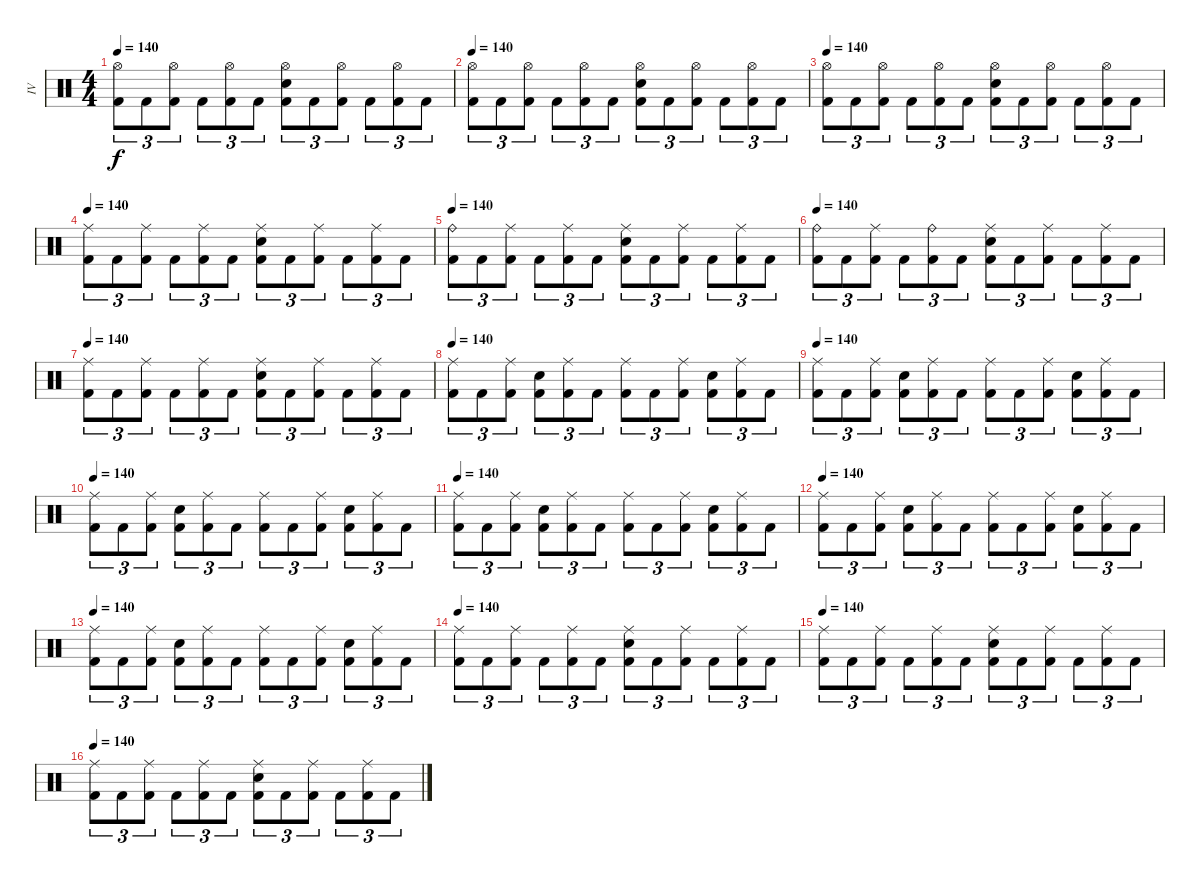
\track ("IV" "IV") {instrument percussion}
\staff {score}
\articulation defaults
\ts (4 4)
\tempo 140
\clef neutral
\ks c
("Hi-Hat (open)" "Kick (hit) 2").8{tu (3 2) dy f} "Kick (hit) 2".8{tu (3 2)} ("Hi-Hat (open)" "Kick (hit) 2").8{tu (3 2)} "Kick (hit) 2".8{tu (3 2)} ("Hi-Hat (open)" "Kick (hit) 2").8{tu (3 2)} "Kick (hit) 2".8{tu (3 2)} ("Hi-Hat (open)" "Snare (hit) 2" "Kick (hit) 2").8{tu (3 2)} "Kick (hit) 2".8{tu (3 2)} ("Hi-Hat (open)" "Kick (hit) 2").8{tu (3 2)} "Kick (hit) 2".8{tu (3 2)} ("Hi-Hat (open)" "Kick (hit) 2").8{tu (3 2)} "Kick (hit) 2".8{tu (3 2)} |
\tempo 140
("Hi-Hat (open)" "Kick (hit) 2").8{tu (3 2)} "Kick (hit) 2".8{tu (3 2)} ("Hi-Hat (open)" "Kick (hit) 2").8{tu (3 2)} "Kick (hit) 2".8{tu (3 2)} ("Hi-Hat (open)" "Kick (hit) 2").8{tu (3 2)} "Kick (hit) 2".8{tu (3 2)} ("Hi-Hat (open)" "Snare (hit) 2" "Kick (hit) 2").8{tu (3 2)} "Kick (hit) 2".8{tu (3 2)} ("Hi-Hat (open)" "Kick (hit) 2").8{tu (3 2)} "Kick (hit) 2".8{tu (3 2)} ("Hi-Hat (open)" "Kick (hit) 2").8{tu (3 2)} "Kick (hit) 2".8{tu (3 2)} |
\tempo 140
("Hi-Hat (open)" "Kick (hit) 2").8{tu (3 2)} "Kick (hit) 2".8{tu (3 2)} ("Hi-Hat (open)" "Kick (hit) 2").8{tu (3 2)} "Kick (hit) 2".8{tu (3 2)} ("Hi-Hat (open)" "Kick (hit) 2").8{tu (3 2)} "Kick (hit) 2".8{tu (3 2)} ("Hi-Hat (open)" "Snare (hit) 2" "Kick (hit) 2").8{tu (3 2)} "Kick (hit) 2".8{tu (3 2)} ("Hi-Hat (open)" "Kick (hit) 2").8{tu (3 2)} "Kick (hit) 2".8{tu (3 2)} ("Hi-Hat (open)" "Kick (hit) 2").8{tu (3 2)} "Kick (hit) 2".8{tu (3 2)} |
\tempo 140
("Ride (middle)" "Kick (hit) 2").8{tu (3 2)} "Kick (hit) 2".8{tu (3 2)} ("Ride (middle)" "Kick (hit) 2").8{tu (3 2)} "Kick (hit) 2".8{tu (3 2)} ("Ride (middle)" "Kick (hit) 2").8{tu (3 2)} "Kick (hit) 2".8{tu (3 2)} ("Ride (middle)" "Snare (hit) 2" "Kick (hit) 2").8{tu (3 2)} "Kick (hit) 2".8{tu (3 2)} ("Ride (middle)" "Kick (hit) 2").8{tu (3 2)} "Kick (hit) 2".8{tu (3 2)} ("Ride (middle)" "Kick (hit) 2").8{tu (3 2)} "Kick (hit) 2".8{tu (3 2)} |
\tempo 140
("Ride (bell)" "Kick (hit) 2").8{tu (3 2)} "Kick (hit) 2".8{tu (3 2)} ("Ride (middle)" "Kick (hit) 2").8{tu (3 2)} "Kick (hit) 2".8{tu (3 2)} ("Ride (middle)" "Kick (hit) 2").8{tu (3 2)} "Kick (hit) 2".8{tu (3 2)} ("Ride (middle)" "Snare (hit) 2" "Kick (hit) 2").8{tu (3 2)} "Kick (hit) 2".8{tu (3 2)} ("Ride (middle)" "Kick (hit) 2").8{tu (3 2)} "Kick (hit) 2".8{tu (3 2)} ("Ride (middle)" "Kick (hit) 2").8{tu (3 2)} "Kick (hit) 2".8{tu (3 2)} |
\tempo 140
("Ride (bell)" "Kick (hit) 2").8{tu (3 2)} "Kick (hit) 2".8{tu (3 2)} ("Ride (middle)" "Kick (hit) 2").8{tu (3 2)} "Kick (hit) 2".8{tu (3 2)} ("Ride (bell)" "Kick (hit) 2").8{tu (3 2)} "Kick (hit) 2".8{tu (3 2)} ("Ride (middle)" "Snare (hit) 2" "Kick (hit) 2").8{tu (3 2)} "Kick (hit) 2".8{tu (3 2)} ("Ride (middle)" "Kick (hit) 2").8{tu (3 2)} "Kick (hit) 2".8{tu (3 2)} ("Ride (middle)" "Kick (hit) 2").8{tu (3 2)} "Kick (hit) 2".8{tu (3 2)} |
\tempo 140
("Ride (middle)" "Kick (hit) 2").8{tu (3 2)} "Kick (hit) 2".8{tu (3 2)} ("Ride (middle)" "Kick (hit) 2").8{tu (3 2)} "Kick (hit) 2".8{tu (3 2)} ("Ride (middle)" "Kick (hit) 2").8{tu (3 2)} "Kick (hit) 2".8{tu (3 2)} ("Ride (middle)" "Snare (hit) 2" "Kick (hit) 2").8{tu (3 2)} "Kick (hit) 2".8{tu (3 2)} ("Ride (middle)" "Kick (hit) 2").8{tu (3 2)} "Kick (hit) 2".8{tu (3 2)} ("Ride (middle)" "Kick (hit) 2").8{tu (3 2)} "Kick (hit) 2".8{tu (3 2)} |
\tempo 140
("Ride (middle)" "Kick (hit) 2").8{tu (3 2)} "Kick (hit) 2".8{tu (3 2)} ("Ride (middle)" "Kick (hit) 2").8{tu (3 2)} ("Snare (hit) 2" "Kick (hit) 2").8{tu (3 2)} ("Ride (middle)" "Kick (hit) 2").8{tu (3 2)} "Kick (hit) 2".8{tu (3 2)} ("Ride (middle)" "Kick (hit) 2").8{tu (3 2)} "Kick (hit) 2".8{tu (3 2)} ("Ride (middle)" "Kick (hit) 2").8{tu (3 2)} ("Snare (hit) 2" "Kick (hit) 2").8{tu (3 2)} ("Ride (middle)" "Kick (hit) 2").8{tu (3 2)} "Kick (hit) 2".8{tu (3 2)} |
\tempo 140
("Ride (middle)" "Kick (hit) 2").8{tu (3 2)} "Kick (hit) 2".8{tu (3 2)} ("Ride (middle)" "Kick (hit) 2").8{tu (3 2)} ("Snare (hit) 2" "Kick (hit) 2").8{tu (3 2)} ("Ride (middle)" "Kick (hit) 2").8{tu (3 2)} "Kick (hit) 2".8{tu (3 2)} ("Ride (middle)" "Kick (hit) 2").8{tu (3 2)} "Kick (hit) 2".8{tu (3 2)} ("Ride (middle)" "Kick (hit) 2").8{tu (3 2)} ("Snare (hit) 2" "Kick (hit) 2").8{tu (3 2)} ("Ride (middle)" "Kick (hit) 2").8{tu (3 2)} "Kick (hit) 2".8{tu (3 2)} |
\tempo 140
("Ride (middle)" "Kick (hit) 2").8{tu (3 2)} "Kick (hit) 2".8{tu (3 2)} ("Ride (middle)" "Kick (hit) 2").8{tu (3 2)} ("Snare (hit) 2" "Kick (hit) 2").8{tu (3 2)} ("Ride (middle)" "Kick (hit) 2").8{tu (3 2)} "Kick (hit) 2".8{tu (3 2)} ("Ride (middle)" "Kick (hit) 2").8{tu (3 2)} "Kick (hit) 2".8{tu (3 2)} ("Ride (middle)" "Kick (hit) 2").8{tu (3 2)} ("Snare (hit) 2" "Kick (hit) 2").8{tu (3 2)} ("Ride (middle)" "Kick (hit) 2").8{tu (3 2)} "Kick (hit) 2".8{tu (3 2)} |
\tempo 140
("Ride (middle)" "Kick (hit) 2").8{tu (3 2)} "Kick (hit) 2".8{tu (3 2)} ("Ride (middle)" "Kick (hit) 2").8{tu (3 2)} ("Snare (hit) 2" "Kick (hit) 2").8{tu (3 2)} ("Ride (middle)" "Kick (hit) 2").8{tu (3 2)} "Kick (hit) 2".8{tu (3 2)} ("Ride (middle)" "Kick (hit) 2").8{tu (3 2)} "Kick (hit) 2".8{tu (3 2)} ("Ride (middle)" "Kick (hit) 2").8{tu (3 2)} ("Snare (hit) 2" "Kick (hit) 2").8{tu (3 2)} ("Ride (middle)" "Kick (hit) 2").8{tu (3 2)} "Kick (hit) 2".8{tu (3 2)} |
\tempo 140
("Ride (middle)" "Kick (hit) 2").8{tu (3 2)} "Kick (hit) 2".8{tu (3 2)} ("Ride (middle)" "Kick (hit) 2").8{tu (3 2)} ("Snare (hit) 2" "Kick (hit) 2").8{tu (3 2)} ("Ride (middle)" "Kick (hit) 2").8{tu (3 2)} "Kick (hit) 2".8{tu (3 2)} ("Ride (middle)" "Kick (hit) 2").8{tu (3 2)} "Kick (hit) 2".8{tu (3 2)} ("Ride (middle)" "Kick (hit) 2").8{tu (3 2)} ("Snare (hit) 2" "Kick (hit) 2").8{tu (3 2)} ("Ride (middle)" "Kick (hit) 2").8{tu (3 2)} "Kick (hit) 2".8{tu (3 2)} |
\tempo 140
("Ride (middle)" "Kick (hit) 2").8{tu (3 2)} "Kick (hit) 2".8{tu (3 2)} ("Ride (middle)" "Kick (hit) 2").8{tu (3 2)} ("Snare (hit) 2" "Kick (hit) 2").8{tu (3 2)} ("Ride (middle)" "Kick (hit) 2").8{tu (3 2)} "Kick (hit) 2".8{tu (3 2)} ("Ride (middle)" "Kick (hit) 2").8{tu (3 2)} "Kick (hit) 2".8{tu (3 2)} ("Ride (middle)" "Kick (hit) 2").8{tu (3 2)} ("Snare (hit) 2" "Kick (hit) 2").8{tu (3 2)} ("Ride (middle)" "Kick (hit) 2").8{tu (3 2)} "Kick (hit) 2".8{tu (3 2)} |
\tempo 140
("Ride (middle)" "Kick (hit) 2").8{tu (3 2)} "Kick (hit) 2".8{tu (3 2)} ("Ride (middle)" "Kick (hit) 2").8{tu (3 2)} "Kick (hit) 2".8{tu (3 2)} ("Ride (middle)" "Kick (hit) 2").8{tu (3 2)} "Kick (hit) 2".8{tu (3 2)} ("Ride (middle)" "Snare (hit) 2" "Kick (hit) 2").8{tu (3 2)} "Kick (hit) 2".8{tu (3 2)} ("Ride (middle)" "Kick (hit) 2").8{tu (3 2)} "Kick (hit) 2".8{tu (3 2)} ("Ride (middle)" "Kick (hit) 2").8{tu (3 2)} "Kick (hit) 2".8{tu (3 2)} |
\tempo 140
("Ride (middle)" "Kick (hit) 2").8{tu (3 2)} "Kick (hit) 2".8{tu (3 2)} ("Ride (middle)" "Kick (hit) 2").8{tu (3 2)} "Kick (hit) 2".8{tu (3 2)} ("Ride (middle)" "Kick (hit) 2").8{tu (3 2)} "Kick (hit) 2".8{tu (3 2)} ("Ride (middle)" "Snare (hit) 2" "Kick (hit) 2").8{tu (3 2)} "Kick (hit) 2".8{tu (3 2)} ("Ride (middle)" "Kick (hit) 2").8{tu (3 2)} "Kick (hit) 2".8{tu (3 2)} ("Ride (middle)" "Kick (hit) 2").8{tu (3 2)} "Kick (hit) 2".8{tu (3 2)} |
\tempo 140
("Ride (middle)" "Kick (hit) 2").8{tu (3 2)} "Kick (hit) 2".8{tu (3 2)} ("Ride (middle)" "Kick (hit) 2").8{tu (3 2)} "Kick (hit) 2".8{tu (3 2)} ("Ride (middle)" "Kick (hit) 2").8{tu (3 2)} "Kick (hit) 2".8{tu (3 2)} ("Ride (middle)" "Snare (hit) 2" "Kick (hit) 2").8{tu (3 2)} "Kick (hit) 2".8{tu (3 2)} ("Ride (middle)" "Kick (hit) 2").8{tu (3 2)} "Kick (hit) 2".8{tu (3 2)} ("Ride (middle)" "Kick (hit) 2").8{tu (3 2)} "Kick (hit) 2".8{tu (3 2)}
